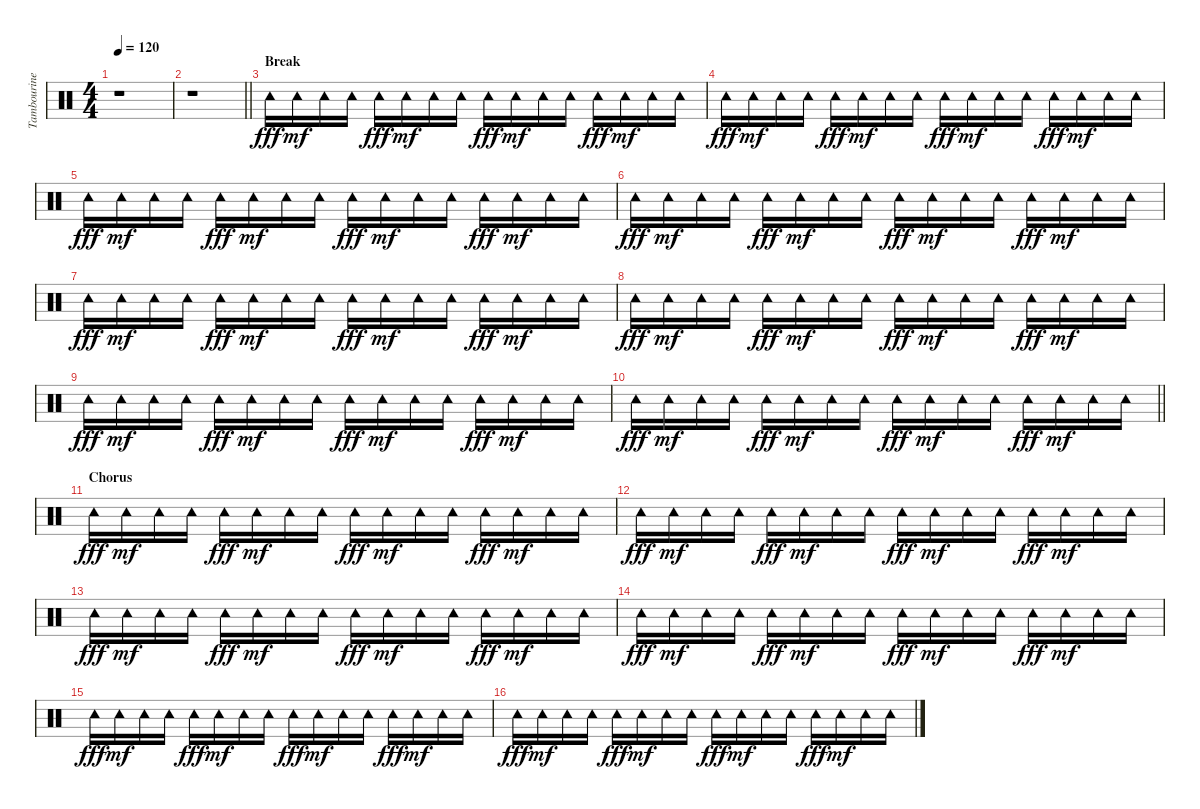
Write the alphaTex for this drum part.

\track ("Tambourine" "Tambourine") {instrument percussion}
\staff {score}
\articulation defaults
\ts (4 4)
\tempo 120
\clef neutral
\ks c
r.1{dy fff} |
\barLineRight lightlight
r.1 |
\section ("" "Break")
"Tambourine (hit)".16 "Tambourine (hit)".16{dy mf} "Tambourine (hit)".16 "Tambourine (hit)".16 "Tambourine (hit)".16{dy fff} "Tambourine (hit)".16{dy mf} "Tambourine (hit)".16 "Tambourine (hit)".16 "Tambourine (hit)".16{dy fff} "Tambourine (hit)".16{dy mf} "Tambourine (hit)".16 "Tambourine (hit)".16 "Tambourine (hit)".16{dy fff} "Tambourine (hit)".16{dy mf} "Tambourine (hit)".16 "Tambourine (hit)".16 |
"Tambourine (hit)".16{dy fff} "Tambourine (hit)".16{dy mf} "Tambourine (hit)".16 "Tambourine (hit)".16 "Tambourine (hit)".16{dy fff} "Tambourine (hit)".16{dy mf} "Tambourine (hit)".16 "Tambourine (hit)".16 "Tambourine (hit)".16{dy fff} "Tambourine (hit)".16{dy mf} "Tambourine (hit)".16 "Tambourine (hit)".16 "Tambourine (hit)".16{dy fff} "Tambourine (hit)".16{dy mf} "Tambourine (hit)".16 "Tambourine (hit)".16 |
"Tambourine (hit)".16{dy fff} "Tambourine (hit)".16{dy mf} "Tambourine (hit)".16 "Tambourine (hit)".16 "Tambourine (hit)".16{dy fff} "Tambourine (hit)".16{dy mf} "Tambourine (hit)".16 "Tambourine (hit)".16 "Tambourine (hit)".16{dy fff} "Tambourine (hit)".16{dy mf} "Tambourine (hit)".16 "Tambourine (hit)".16 "Tambourine (hit)".16{dy fff} "Tambourine (hit)".16{dy mf} "Tambourine (hit)".16 "Tambourine (hit)".16 |
"Tambourine (hit)".16{dy fff} "Tambourine (hit)".16{dy mf} "Tambourine (hit)".16 "Tambourine (hit)".16 "Tambourine (hit)".16{dy fff} "Tambourine (hit)".16{dy mf} "Tambourine (hit)".16 "Tambourine (hit)".16 "Tambourine (hit)".16{dy fff} "Tambourine (hit)".16{dy mf} "Tambourine (hit)".16 "Tambourine (hit)".16 "Tambourine (hit)".16{dy fff} "Tambourine (hit)".16{dy mf} "Tambourine (hit)".16 "Tambourine (hit)".16 |
"Tambourine (hit)".16{dy fff} "Tambourine (hit)".16{dy mf} "Tambourine (hit)".16 "Tambourine (hit)".16 "Tambourine (hit)".16{dy fff} "Tambourine (hit)".16{dy mf} "Tambourine (hit)".16 "Tambourine (hit)".16 "Tambourine (hit)".16{dy fff} "Tambourine (hit)".16{dy mf} "Tambourine (hit)".16 "Tambourine (hit)".16 "Tambourine (hit)".16{dy fff} "Tambourine (hit)".16{dy mf} "Tambourine (hit)".16 "Tambourine (hit)".16 |
"Tambourine (hit)".16{dy fff} "Tambourine (hit)".16{dy mf} "Tambourine (hit)".16 "Tambourine (hit)".16 "Tambourine (hit)".16{dy fff} "Tambourine (hit)".16{dy mf} "Tambourine (hit)".16 "Tambourine (hit)".16 "Tambourine (hit)".16{dy fff} "Tambourine (hit)".16{dy mf} "Tambourine (hit)".16 "Tambourine (hit)".16 "Tambourine (hit)".16{dy fff} "Tambourine (hit)".16{dy mf} "Tambourine (hit)".16 "Tambourine (hit)".16 |
"Tambourine (hit)".16{dy fff} "Tambourine (hit)".16{dy mf} "Tambourine (hit)".16 "Tambourine (hit)".16 "Tambourine (hit)".16{dy fff} "Tambourine (hit)".16{dy mf} "Tambourine (hit)".16 "Tambourine (hit)".16 "Tambourine (hit)".16{dy fff} "Tambourine (hit)".16{dy mf} "Tambourine (hit)".16 "Tambourine (hit)".16 "Tambourine (hit)".16{dy fff} "Tambourine (hit)".16{dy mf} "Tambourine (hit)".16 "Tambourine (hit)".16 |
\barLineRight lightlight "Tambourine (hit)".16{dy fff} "Tambourine (hit)".16{dy mf} "Tambourine (hit)".16 "Tambourine (hit)".16 "Tambourine (hit)".16{dy fff} "Tambourine (hit)".16{dy mf} "Tambourine (hit)".16 "Tambourine (hit)".16 "Tambourine (hit)".16{dy fff} "Tambourine (hit)".16{dy mf} "Tambourine (hit)".16 "Tambourine (hit)".16 "Tambourine (hit)".16{dy fff} "Tambourine (hit)".16{dy mf} "Tambourine (hit)".16 "Tambourine (hit)".16
|
\section ("" "Chorus")
"Tambourine (hit)".16{dy fff} "Tambourine (hit)".16{dy mf} "Tambourine (hit)".16 "Tambourine (hit)".16 "Tambourine (hit)".16{dy fff} "Tambourine (hit)".16{dy mf} "Tambourine (hit)".16 "Tambourine (hit)".16 "Tambourine (hit)".16{dy fff} "Tambourine (hit)".16{dy mf} "Tambourine (hit)".16 "Tambourine (hit)".16 "Tambourine (hit)".16{dy fff} "Tambourine (hit)".16{dy mf} "Tambourine (hit)".16 "Tambourine (hit)".16 |
"Tambourine (hit)".16{dy fff} "Tambourine (hit)".16{dy mf} "Tambourine (hit)".16 "Tambourine (hit)".16 "Tambourine (hit)".16{dy fff} "Tambourine (hit)".16{dy mf} "Tambourine (hit)".16 "Tambourine (hit)".16 "Tambourine (hit)".16{dy fff} "Tambourine (hit)".16{dy mf} "Tambourine (hit)".16 "Tambourine (hit)".16 "Tambourine (hit)".16{dy fff} "Tambourine (hit)".16{dy mf} "Tambourine (hit)".16 "Tambourine (hit)".16 |
"Tambourine (hit)".16{dy fff} "Tambourine (hit)".16{dy mf} "Tambourine (hit)".16 "Tambourine (hit)".16 "Tambourine (hit)".16{dy fff} "Tambourine (hit)".16{dy mf} "Tambourine (hit)".16 "Tambourine (hit)".16 "Tambourine (hit)".16{dy fff} "Tambourine (hit)".16{dy mf} "Tambourine (hit)".16 "Tambourine (hit)".16 "Tambourine (hit)".16{dy fff} "Tambourine (hit)".16{dy mf} "Tambourine (hit)".16 "Tambourine (hit)".16 |
"Tambourine (hit)".16{dy fff} "Tambourine (hit)".16{dy mf} "Tambourine (hit)".16 "Tambourine (hit)".16 "Tambourine (hit)".16{dy fff} "Tambourine (hit)".16{dy mf} "Tambourine (hit)".16 "Tambourine (hit)".16 "Tambourine (hit)".16{dy fff} "Tambourine (hit)".16{dy mf} "Tambourine (hit)".16 "Tambourine (hit)".16 "Tambourine (hit)".16{dy fff} "Tambourine (hit)".16{dy mf} "Tambourine (hit)".16 "Tambourine (hit)".16 |
"Tambourine (hit)".16{dy fff} "Tambourine (hit)".16{dy mf} "Tambourine (hit)".16 "Tambourine (hit)".16 "Tambourine (hit)".16{dy fff} "Tambourine (hit)".16{dy mf} "Tambourine (hit)".16 "Tambourine (hit)".16 "Tambourine (hit)".16{dy fff} "Tambourine (hit)".16{dy mf} "Tambourine (hit)".16 "Tambourine (hit)".16 "Tambourine (hit)".16{dy fff} "Tambourine (hit)".16{dy mf} "Tambourine (hit)".16 "Tambourine (hit)".16 |
"Tambourine (hit)".16{dy fff} "Tambourine (hit)".16{dy mf} "Tambourine (hit)".16 "Tambourine (hit)".16 "Tambourine (hit)".16{dy fff} "Tambourine (hit)".16{dy mf} "Tambourine (hit)".16 "Tambourine (hit)".16 "Tambourine (hit)".16{dy fff} "Tambourine (hit)".16{dy mf} "Tambourine (hit)".16 "Tambourine (hit)".16 "Tambourine (hit)".16{dy fff} "Tambourine (hit)".16{dy mf} "Tambourine (hit)".16 "Tambourine (hit)".16
